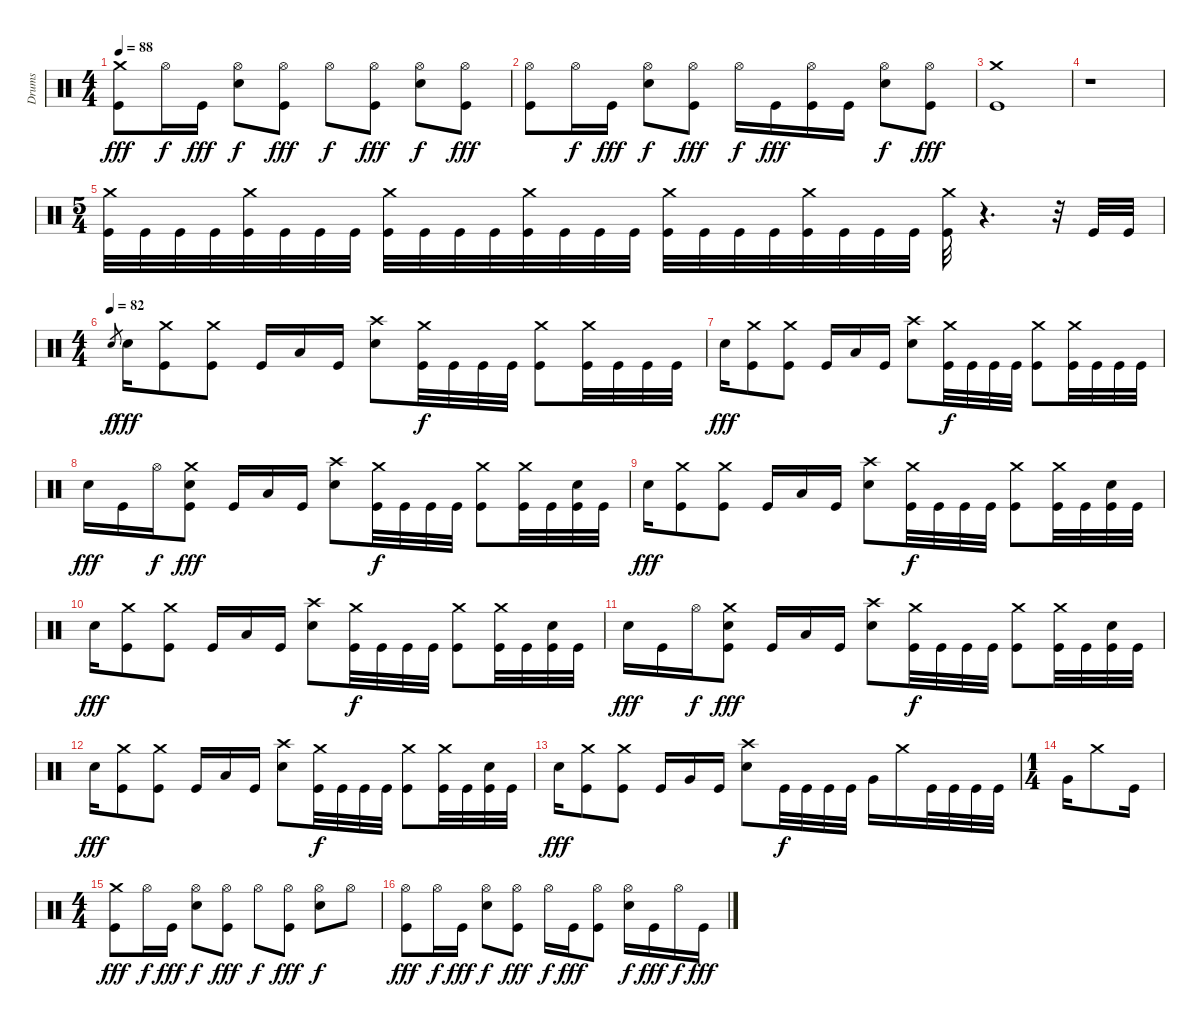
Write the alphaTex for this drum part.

\track ("Drums" "Drums") {instrument percussion}
\staff {score}
\articulation defaults
\ts (4 4)
\tempo 88
\clef neutral
\ks c
("Crash medium (hit)" "Kick (hit)").8{dy fff} "Hi-Hat (open)".16{dy f} "Kick (hit)".16{dy fff} ("Hi-Hat (open)" "Snare (hit) 2").8{dy f} ("Hi-Hat (open)" "Kick (hit)").8{dy fff} "Hi-Hat (open)".8{dy f} ("Hi-Hat (open)" "Kick (hit)").8{dy fff} ("Hi-Hat (open)" "Snare (hit) 2").8{dy f} ("Hi-Hat (open)" "Kick (hit)").8{dy fff} |
("Hi-Hat (open)" "Kick (hit)").8 "Hi-Hat (open)".16{dy f} "Kick (hit)".16{dy fff} ("Hi-Hat (open)" "Snare (hit) 2").8{dy f} ("Hi-Hat (open)" "Kick (hit)").8{dy fff} "Hi-Hat (open)".16{dy f} "Kick (hit)".16{dy fff} ("Hi-Hat (open)" "Kick (hit)").16 "Kick (hit)".16 ("Hi-Hat (open)" "Snare (hit) 2").8{dy f} ("Hi-Hat (open)" "Kick (hit)").8{dy fff} |
("Crash medium (hit)" "Kick (hit)").1 |
r.1 |
\ts (5 4)
("Crash medium (hit)" "Kick (hit)").32 "Kick (hit)".32 "Kick (hit)".32 "Kick (hit)".32 ("Crash medium (hit)" "Kick (hit)").32 "Kick (hit)".32 "Kick (hit)".32 "Kick (hit)".32 ("Crash medium (hit)" "Kick (hit)").32 "Kick (hit)".32 "Kick (hit)".32 "Kick (hit)".32 ("Crash medium (hit)" "Kick (hit)").32 "Kick (hit)".32 "Kick (hit)".32 "Kick (hit)".32 ("Crash medium (hit)" "Kick (hit)").32 "Kick (hit)".32 "Kick (hit)".32 "Kick (hit)".32 ("Crash medium (hit)" "Kick (hit)").32 "Kick (hit)".32 "Kick (hit)".32 "Kick (hit)".32 ("Crash medium (hit)" "Kick (hit)").32 r.4{d} r.32 "Kick (hit)".32 "Kick (hit)".32 |
\ts (4 4)
\tempo (82)
"Snare (hit) 2".8{gr dy f} "Snare (hit) 2".16{dy fff} ("Crash medium (hit)" "Kick (hit)").8 ("Crash medium (hit)" "Kick (hit)").8 "Kick (hit)".16 "Low Tom (hit)".16 "Kick (hit)".16 ("Crash high (hit)" "Snare (hit) 2").8 ("Crash medium (hit)" "Kick (hit)").32{dy f} "Kick (hit)".32 "Kick (hit)".32 "Kick (hit)".32 ("Crash medium (hit)" "Kick (hit)").8 ("Crash medium (hit)" "Kick (hit)").32 "Kick (hit)".32 "Kick (hit)".32 "Kick (hit)".32 |
"Snare (hit) 2".16{dy fff} ("Crash medium (hit)" "Kick (hit)").8 ("Crash medium (hit)" "Kick (hit)").8 "Kick (hit)".16 "Low Tom (hit)".16 "Kick (hit)".16 ("Crash high (hit)" "Snare (hit) 2").8 ("Crash medium (hit)" "Kick (hit)").32{dy f} "Kick (hit)".32 "Kick (hit)".32 "Kick (hit)".32 ("Crash medium (hit)" "Kick (hit)").8 ("Crash medium (hit)" "Kick (hit)").32 "Kick (hit)".32 "Kick (hit)".32 "Kick (hit)".32 |
"Snare (hit) 2".16{dy fff} "Kick (hit)".16 "Hi-Hat (open)".16{dy f} ("Crash medium (hit)" "Snare (hit) 2" "Kick (hit)").8{dy fff} "Kick (hit)".16 "Low Tom (hit)".16 "Kick (hit)".16 ("Crash high (hit)" "Snare (hit) 2").8 ("Crash medium (hit)" "Kick (hit)").32{dy f} "Kick (hit)".32 "Kick (hit)".32 "Kick (hit)".32 ("Crash medium (hit)" "Kick (hit)").8 ("Crash medium (hit)" "Kick (hit)").32 "Kick (hit)".32 ("Snare (hit) 2" "Kick (hit)").32 "Kick (hit)".32 |
"Snare (hit) 2".16{dy fff} ("Crash medium (hit)" "Kick (hit)").8 ("Crash medium (hit)" "Kick (hit)").8 "Kick (hit)".16 "Low Tom (hit)".16 "Kick (hit)".16 ("Crash high (hit)" "Snare (hit) 2").8 ("Crash medium (hit)" "Kick (hit)").32{dy f} "Kick (hit)".32 "Kick (hit)".32 "Kick (hit)".32 ("Crash medium (hit)" "Kick (hit)").8 ("Crash medium (hit)" "Kick (hit)").32 "Kick (hit)".32 ("Snare (hit) 2" "Kick (hit)").32 "Kick (hit)".32 |
"Snare (hit) 2".16{dy fff} ("Crash medium (hit)" "Kick (hit)").8 ("Crash medium (hit)" "Kick (hit)").8 "Kick (hit)".16 "Low Tom (hit)".16 "Kick (hit)".16 ("Crash high (hit)" "Snare (hit) 2").8 ("Crash medium (hit)" "Kick (hit)").32{dy f} "Kick (hit)".32 "Kick (hit)".32 "Kick (hit)".32 ("Crash medium (hit)" "Kick (hit)").8 ("Crash medium (hit)" "Kick (hit)").32 "Kick (hit)".32 ("Snare (hit) 2" "Kick (hit)").32 "Kick (hit)".32 |
"Snare (hit) 2".16{dy fff} "Kick (hit)".16 "Hi-Hat (open)".16{dy f} ("Crash medium (hit)" "Snare (hit) 2" "Kick (hit)").8{dy fff} "Kick (hit)".16 "Low Tom (hit)".16 "Kick (hit)".16 ("Crash high (hit)" "Snare (hit) 2").8 ("Crash medium (hit)" "Kick (hit)").32{dy f} "Kick (hit)".32 "Kick (hit)".32 "Kick (hit)".32 ("Crash medium (hit)" "Kick (hit)").8 ("Crash medium (hit)" "Kick (hit)").32 "Kick (hit)".32 ("Snare (hit) 2" "Kick (hit)").32 "Kick (hit)".32 |
"Snare (hit) 2".16{dy fff} ("Crash medium (hit)" "Kick (hit)").8 ("Crash medium (hit)" "Kick (hit)").8 "Kick (hit)".16 "Low Tom (hit)".16 "Kick (hit)".16 ("Crash high (hit)" "Snare (hit) 2").8 ("Crash medium (hit)" "Kick (hit)").32{dy f} "Kick (hit)".32 "Kick (hit)".32 "Kick (hit)".32 ("Crash medium (hit)" "Kick (hit)").8 ("Crash medium (hit)" "Kick (hit)").32 "Kick (hit)".32 ("Snare (hit) 2" "Kick (hit)").32 "Kick (hit)".32 |
"Snare (hit) 2".16{dy fff} ("Crash medium (hit)" "Kick (hit)").8 ("Crash medium (hit)" "Kick (hit)").8 "Kick (hit)".16 "Very Low Tom (hit)".16 "Kick (hit)".16 ("Crash high (hit)" "Snare (hit) 2").8 "Kick (hit)".32{dy f} "Kick (hit)".32 "Kick (hit)".32 "Kick (hit)".32 "Very Low Tom (hit)".16 "Crash medium (hit)".16 "Kick (hit)".32 "Kick (hit)".32 "Kick (hit)".32 "Kick (hit)".32 |
\ts (1 4)
"Very Low Tom (hit)".16 "Crash medium (hit)".8 "Kick (hit)".16 |
\ts (4 4)
("Crash medium (hit)" "Kick (hit)").8{dy fff} "Hi-Hat (open)".16{dy f} "Kick (hit)".16{dy fff} ("Hi-Hat (open)" "Snare (hit) 2").8{dy f} ("Hi-Hat (open)" "Kick (hit)").8{dy fff} "Hi-Hat (open)".8{dy f} ("Hi-Hat (open)" "Kick (hit)").8{dy fff} ("Hi-Hat (open)" "Snare (hit) 2").8{dy f} "Hi-Hat (open)".8 |
("Hi-Hat (open)" "Kick (hit)").8{dy fff} "Hi-Hat (open)".16{dy f} "Kick (hit)".16{dy fff} ("Hi-Hat (open)" "Snare (hit) 2").8{dy f} ("Hi-Hat (open)" "Kick (hit)").8{dy fff} "Hi-Hat (open)".16{dy f} "Kick (hit)".16{dy fff} ("Hi-Hat (open)" "Kick (hit)").8 ("Hi-Hat (open)" "Snare (hit) 2").16{dy f} "Kick (hit)".16{dy fff} "Hi-Hat (open)".16{dy f} "Kick (hit)".16{dy fff}
